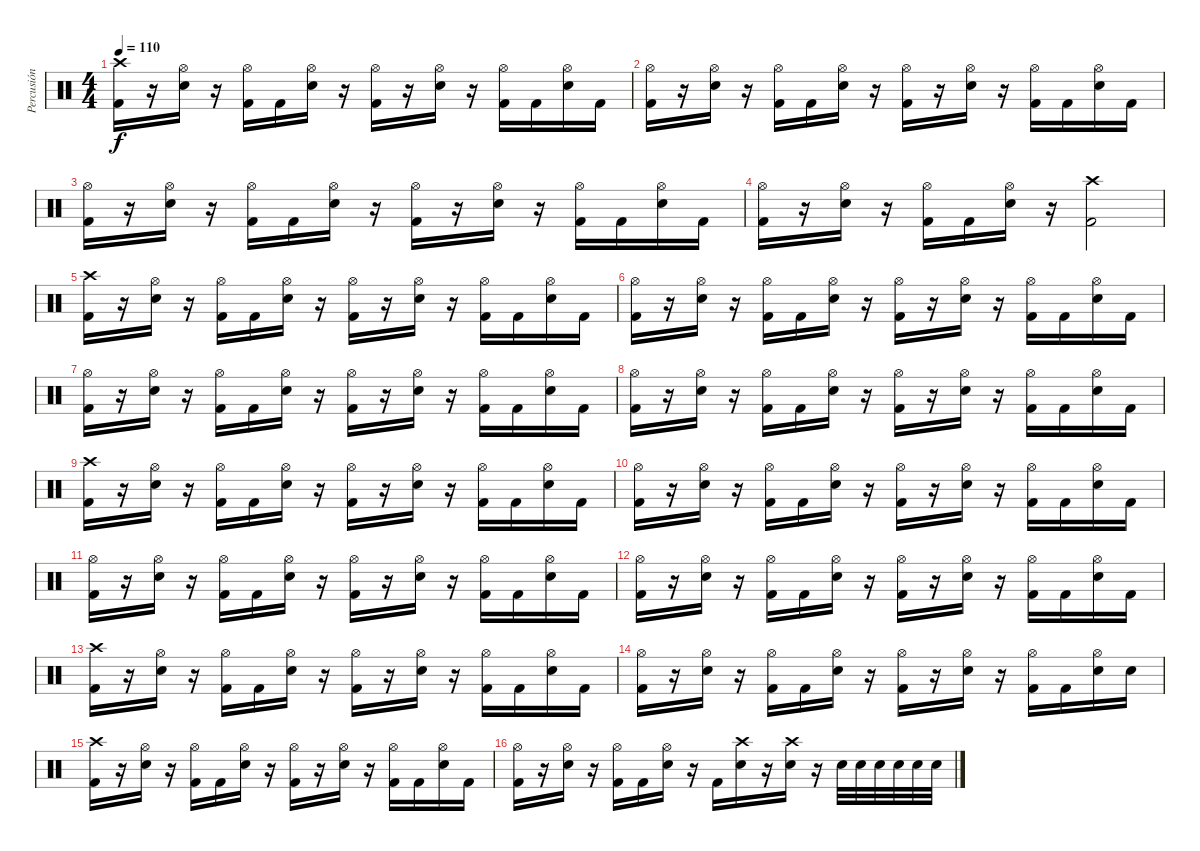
\track ("Percusión" "Percusión") {instrument percussion}
\staff {score}
\articulation defaults
\ts (4 4)
\tempo 110
\clef neutral
\ks c
("Crash high (hit)" "Kick (hit) 2").16{dy f} r.16 ("Hi-Hat (open)" "Electric Snare (hit)").16 r.16 ("Hi-Hat (open)" "Kick (hit) 2").16 "Kick (hit) 2".16 ("Hi-Hat (open)" "Electric Snare (hit)").16 r.16 ("Hi-Hat (open)" "Kick (hit) 2").16 r.16 ("Hi-Hat (open)" "Electric Snare (hit)").16 r.16 ("Hi-Hat (open)" "Kick (hit) 2").16 "Kick (hit) 2".16 ("Hi-Hat (open)" "Electric Snare (hit)").16 "Kick (hit) 2".16 |
("Hi-Hat (open)" "Kick (hit) 2").16 r.16 ("Hi-Hat (open)" "Electric Snare (hit)").16 r.16 ("Hi-Hat (open)" "Kick (hit) 2").16 "Kick (hit) 2".16 ("Hi-Hat (open)" "Electric Snare (hit)").16 r.16 ("Hi-Hat (open)" "Kick (hit) 2").16 r.16 ("Hi-Hat (open)" "Electric Snare (hit)").16 r.16 ("Hi-Hat (open)" "Kick (hit) 2").16 "Kick (hit) 2".16 ("Hi-Hat (open)" "Electric Snare (hit)").16 "Kick (hit) 2".16 |
("Hi-Hat (open)" "Kick (hit) 2").16 r.16 ("Hi-Hat (open)" "Electric Snare (hit)").16 r.16 ("Hi-Hat (open)" "Kick (hit) 2").16 "Kick (hit) 2".16 ("Hi-Hat (open)" "Electric Snare (hit)").16 r.16 ("Hi-Hat (open)" "Kick (hit) 2").16 r.16 ("Hi-Hat (open)" "Electric Snare (hit)").16 r.16 ("Hi-Hat (open)" "Kick (hit) 2").16 "Kick (hit) 2".16 ("Hi-Hat (open)" "Electric Snare (hit)").16 "Kick (hit) 2".16 |
("Hi-Hat (open)" "Kick (hit) 2").16 r.16 ("Hi-Hat (open)" "Electric Snare (hit)").16 r.16 ("Hi-Hat (open)" "Kick (hit) 2").16 "Kick (hit) 2".16 ("Hi-Hat (open)" "Electric Snare (hit)").16 r.16 ("Crash high (hit)" "Kick (hit) 2").2 |
("Crash high (hit)" "Kick (hit) 2").16 r.16 ("Hi-Hat (open)" "Electric Snare (hit)").16 r.16 ("Hi-Hat (open)" "Kick (hit) 2").16 "Kick (hit) 2".16 ("Hi-Hat (open)" "Electric Snare (hit)").16 r.16 ("Hi-Hat (open)" "Kick (hit) 2").16 r.16 ("Hi-Hat (open)" "Electric Snare (hit)").16 r.16 ("Hi-Hat (open)" "Kick (hit) 2").16 "Kick (hit) 2".16 ("Hi-Hat (open)" "Electric Snare (hit)").16 "Kick (hit) 2".16 |
("Hi-Hat (open)" "Kick (hit) 2").16 r.16 ("Hi-Hat (open)" "Electric Snare (hit)").16 r.16 ("Hi-Hat (open)" "Kick (hit) 2").16 "Kick (hit) 2".16 ("Hi-Hat (open)" "Electric Snare (hit)").16 r.16 ("Hi-Hat (open)" "Kick (hit) 2").16 r.16 ("Hi-Hat (open)" "Electric Snare (hit)").16 r.16 ("Hi-Hat (open)" "Kick (hit) 2").16 "Kick (hit) 2".16 ("Hi-Hat (open)" "Electric Snare (hit)").16 "Kick (hit) 2".16 |
("Hi-Hat (open)" "Kick (hit) 2").16 r.16 ("Hi-Hat (open)" "Electric Snare (hit)").16 r.16 ("Hi-Hat (open)" "Kick (hit) 2").16 "Kick (hit) 2".16 ("Hi-Hat (open)" "Electric Snare (hit)").16 r.16 ("Hi-Hat (open)" "Kick (hit) 2").16 r.16 ("Hi-Hat (open)" "Electric Snare (hit)").16 r.16 ("Hi-Hat (open)" "Kick (hit) 2").16 "Kick (hit) 2".16 ("Hi-Hat (open)" "Electric Snare (hit)").16 "Kick (hit) 2".16 |
("Hi-Hat (open)" "Kick (hit) 2").16 r.16 ("Hi-Hat (open)" "Electric Snare (hit)").16 r.16 ("Hi-Hat (open)" "Kick (hit) 2").16 "Kick (hit) 2".16 ("Hi-Hat (open)" "Electric Snare (hit)").16 r.16 ("Hi-Hat (open)" "Kick (hit) 2").16 r.16 ("Hi-Hat (open)" "Electric Snare (hit)").16 r.16 ("Hi-Hat (open)" "Kick (hit) 2").16 "Kick (hit) 2".16 ("Hi-Hat (open)" "Electric Snare (hit)").16 "Kick (hit) 2".16 |
("Crash high (hit)" "Kick (hit) 2").16 r.16 ("Hi-Hat (open)" "Electric Snare (hit)").16 r.16 ("Hi-Hat (open)" "Kick (hit) 2").16 "Kick (hit) 2".16 ("Hi-Hat (open)" "Electric Snare (hit)").16 r.16 ("Hi-Hat (open)" "Kick (hit) 2").16 r.16 ("Hi-Hat (open)" "Electric Snare (hit)").16 r.16 ("Hi-Hat (open)" "Kick (hit) 2").16 "Kick (hit) 2".16 ("Hi-Hat (open)" "Electric Snare (hit)").16 "Kick (hit) 2".16 |
("Hi-Hat (open)" "Kick (hit) 2").16 r.16 ("Hi-Hat (open)" "Electric Snare (hit)").16 r.16 ("Hi-Hat (open)" "Kick (hit) 2").16 "Kick (hit) 2".16 ("Hi-Hat (open)" "Electric Snare (hit)").16 r.16 ("Hi-Hat (open)" "Kick (hit) 2").16 r.16 ("Hi-Hat (open)" "Electric Snare (hit)").16 r.16 ("Hi-Hat (open)" "Kick (hit) 2").16 "Kick (hit) 2".16 ("Hi-Hat (open)" "Electric Snare (hit)").16 "Kick (hit) 2".16 |
("Hi-Hat (open)" "Kick (hit) 2").16 r.16 ("Hi-Hat (open)" "Electric Snare (hit)").16 r.16 ("Hi-Hat (open)" "Kick (hit) 2").16 "Kick (hit) 2".16 ("Hi-Hat (open)" "Electric Snare (hit)").16 r.16 ("Hi-Hat (open)" "Kick (hit) 2").16 r.16 ("Hi-Hat (open)" "Electric Snare (hit)").16 r.16 ("Hi-Hat (open)" "Kick (hit) 2").16 "Kick (hit) 2".16 ("Hi-Hat (open)" "Electric Snare (hit)").16 "Kick (hit) 2".16 |
("Hi-Hat (open)" "Kick (hit) 2").16 r.16 ("Hi-Hat (open)" "Electric Snare (hit)").16 r.16 ("Hi-Hat (open)" "Kick (hit) 2").16 "Kick (hit) 2".16 ("Hi-Hat (open)" "Electric Snare (hit)").16 r.16 ("Hi-Hat (open)" "Kick (hit) 2").16 r.16 ("Hi-Hat (open)" "Electric Snare (hit)").16 r.16 ("Hi-Hat (open)" "Kick (hit) 2").16 "Kick (hit) 2".16 ("Hi-Hat (open)" "Electric Snare (hit)").16 "Kick (hit) 2".16 |
("Crash high (hit)" "Kick (hit) 2").16 r.16 ("Hi-Hat (open)" "Electric Snare (hit)").16 r.16 ("Hi-Hat (open)" "Kick (hit) 2").16 "Kick (hit) 2".16 ("Hi-Hat (open)" "Electric Snare (hit)").16 r.16 ("Hi-Hat (open)" "Kick (hit) 2").16 r.16 ("Hi-Hat (open)" "Electric Snare (hit)").16 r.16 ("Hi-Hat (open)" "Kick (hit) 2").16 "Kick (hit) 2".16 ("Hi-Hat (open)" "Electric Snare (hit)").16 "Kick (hit) 2".16 |
("Hi-Hat (open)" "Kick (hit) 2").16 r.16 ("Hi-Hat (open)" "Electric Snare (hit)").16 r.16 ("Hi-Hat (open)" "Kick (hit) 2").16 "Kick (hit) 2".16 ("Hi-Hat (open)" "Electric Snare (hit)").16 r.16 ("Hi-Hat (open)" "Kick (hit) 2").16 r.16 ("Hi-Hat (open)" "Electric Snare (hit)").16 r.16 ("Hi-Hat (open)" "Kick (hit) 2").16 "Kick (hit) 2".16 ("Hi-Hat (open)" "Electric Snare (hit)").16 "Electric Snare (hit)".16 |
("Crash high (hit)" "Kick (hit) 2").16 r.16 ("Hi-Hat (open)" "Electric Snare (hit)").16 r.16 ("Hi-Hat (open)" "Kick (hit) 2").16 "Kick (hit) 2".16 ("Hi-Hat (open)" "Electric Snare (hit)").16 r.16 ("Hi-Hat (open)" "Kick (hit) 2").16 r.16 ("Hi-Hat (open)" "Electric Snare (hit)").16 r.16 ("Hi-Hat (open)" "Kick (hit) 2").16 "Kick (hit) 2".16 ("Hi-Hat (open)" "Electric Snare (hit)").16 "Kick (hit) 2".16 |
("Hi-Hat (open)" "Kick (hit) 2").16 r.16 ("Hi-Hat (open)" "Electric Snare (hit)").16 r.16 ("Hi-Hat (open)" "Kick (hit) 2").16 "Kick (hit) 2".16 ("Hi-Hat (open)" "Electric Snare (hit)").16 r.16 "Kick (hit) 2".16 ("Crash high (hit)" "Electric Snare (hit)").16 r.16 ("Crash high (hit)" "Electric Snare (hit)").16 r.16 "Electric Snare (hit)".32 "Electric Snare (hit)".32 "Electric Snare (hit)".32 "Electric Snare (hit)".32 "Electric Snare (hit)".32 "Electric Snare (hit)".32
